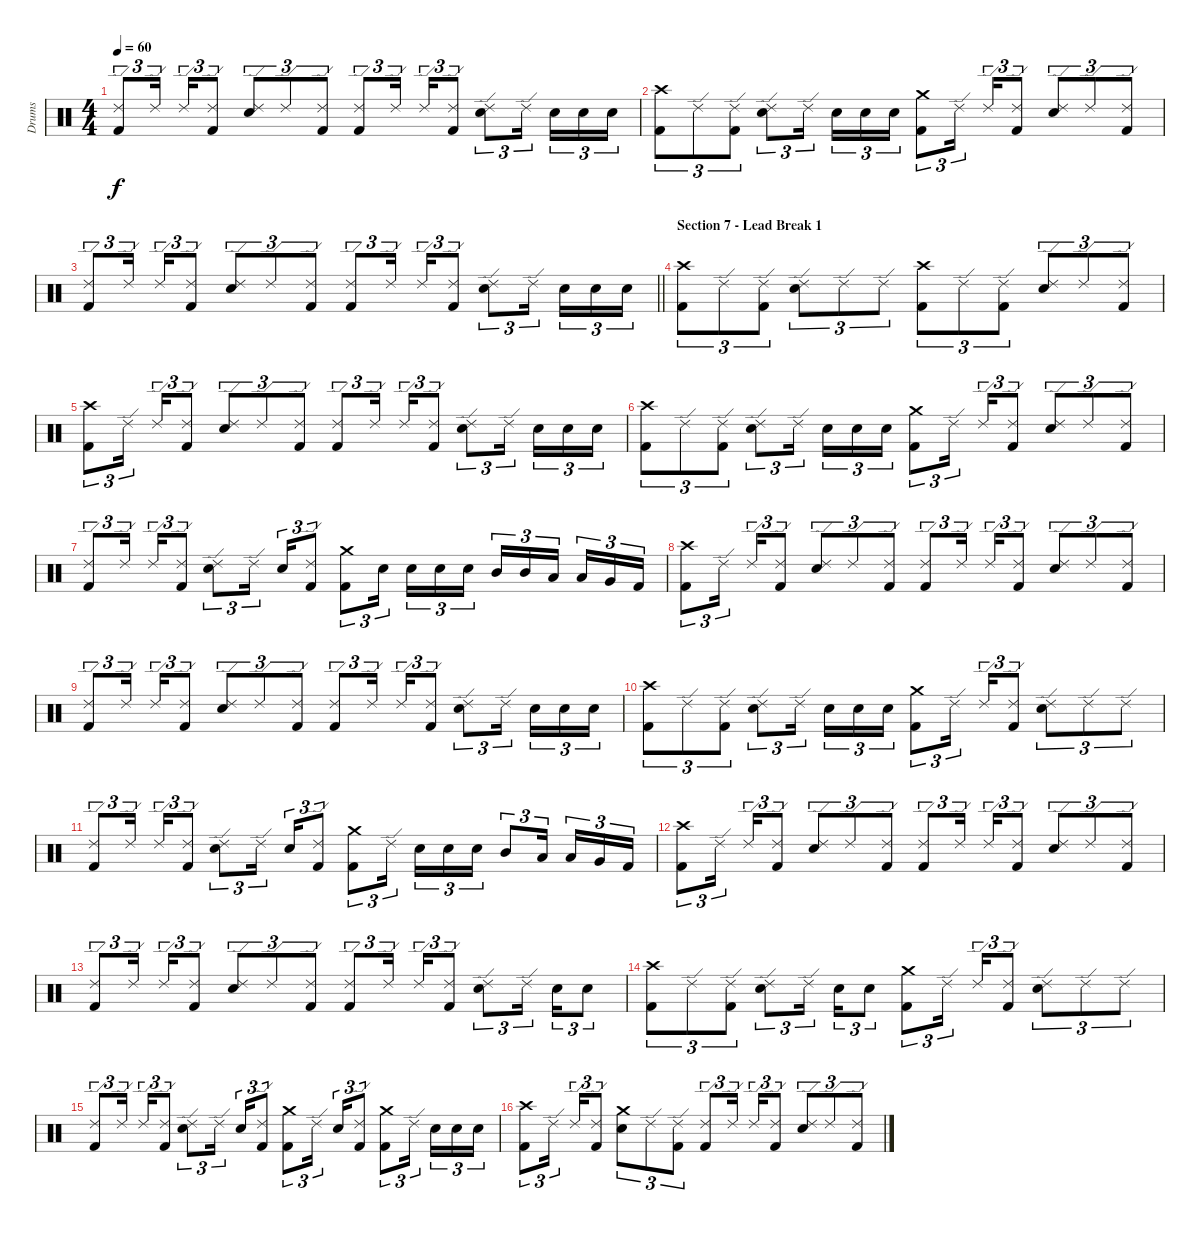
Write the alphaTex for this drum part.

\track ("Drums" "Drums") {instrument percussion}
\staff {score}
\articulation defaults
\ts (4 4)
\tempo 60
\clef neutral
\ks c
("Ride (edge) 2" "Kick (hit) 2").8{tu (3 2) dy f} "Ride (edge) 2".16{tu (3 2)} "Ride (edge) 2".16{tu (3 2)} ("Ride (edge) 2" "Kick (hit) 2").8{tu (3 2)} ("Ride (edge) 2" "Electric Snare (hit)").8{tu (3 2)} "Ride (edge) 2".8{tu (3 2)} ("Ride (edge) 2" "Kick (hit) 2").8{tu (3 2)} ("Ride (edge) 2" "Kick (hit) 2").8{tu (3 2)} "Ride (edge) 2".16{tu (3 2)} "Ride (edge) 2".16{tu (3 2)} ("Ride (edge) 2" "Kick (hit) 2").8{tu (3 2)} ("Ride (edge) 2" "Electric Snare (hit)").8{tu (3 2)} "Ride (edge) 2".16{tu (3 2)} "Electric Snare (hit)".16{tu (3 2)} "Electric Snare (hit)".16{tu (3 2)} "Electric Snare (hit)".16{tu (3 2)} |
("Crash high (hit)" "Kick (hit) 2").8{tu (3 2)} "Ride (edge) 2".8{tu (3 2)} ("Ride (edge) 2" "Kick (hit) 2").8{tu (3 2)} ("Ride (edge) 2" "Electric Snare (hit)").8{tu (3 2)} "Ride (edge) 2".16{tu (3 2)} "Electric Snare (hit)".16{tu (3 2)} "Electric Snare (hit)".16{tu (3 2)} "Electric Snare (hit)".16{tu (3 2)} ("Crash medium (hit)" "Kick (hit) 2").8{tu (3 2)} "Ride (edge) 2".16{tu (3 2)} "Ride (edge) 2".16{tu (3 2)} ("Ride (edge) 2" "Kick (hit) 2").8{tu (3 2)} ("Ride (edge) 2" "Electric Snare (hit)").8{tu (3 2)} "Ride (edge) 2".8{tu (3 2)} ("Ride (edge) 2" "Kick (hit) 2").8{tu (3 2)} |
\barLineRight lightlight
("Ride (edge) 2" "Kick (hit) 2").8{tu (3 2)} "Ride (edge) 2".16{tu (3 2)} "Ride (edge) 2".16{tu (3 2)} ("Ride (edge) 2" "Kick (hit) 2").8{tu (3 2)} ("Ride (edge) 2" "Electric Snare (hit)").8{tu (3 2)} "Ride (edge) 2".8{tu (3 2)} ("Ride (edge) 2" "Kick (hit) 2").8{tu (3 2)} ("Ride (edge) 2" "Kick (hit) 2").8{tu (3 2)} "Ride (edge) 2".16{tu (3 2)} "Ride (edge) 2".16{tu (3 2)} ("Ride (edge) 2" "Kick (hit) 2").8{tu (3 2)} ("Ride (edge) 2" "Electric Snare (hit)").8{tu (3 2)} "Ride (edge) 2".16{tu (3 2)} "Electric Snare (hit)".16{tu (3 2)} "Electric Snare (hit)".16{tu (3 2)} "Electric Snare (hit)".16{tu (3 2)} |
\section ("" "Section 7 - Lead Break 1")
("Crash high (hit)" "Kick (hit) 2").8{tu (3 2)} "Ride (edge) 2".8{tu (3 2)} ("Ride (edge) 2" "Kick (hit) 2").8{tu (3 2)} ("Ride (edge) 2" "Electric Snare (hit)").8{tu (3 2)} "Ride (edge) 2".8{tu (3 2)} "Ride (edge) 2".8{tu (3 2)} ("Crash high (hit)" "Kick (hit) 2").8{tu (3 2)} "Ride (edge) 2".8{tu (3 2)} ("Ride (edge) 2" "Kick (hit) 2").8{tu (3 2)} ("Ride (edge) 2" "Electric Snare (hit)").8{tu (3 2)} "Ride (edge) 2".8{tu (3 2)} ("Ride (edge) 2" "Kick (hit) 2").8{tu (3 2)} |
("Crash high (hit)" "Kick (hit) 2").8{tu (3 2)} "Ride (edge) 2".16{tu (3 2)} "Ride (edge) 2".16{tu (3 2)} ("Ride (edge) 2" "Kick (hit) 2").8{tu (3 2)} ("Ride (edge) 2" "Electric Snare (hit)").8{tu (3 2)} "Ride (edge) 2".8{tu (3 2)} ("Ride (edge) 2" "Kick (hit) 2").8{tu (3 2)} ("Ride (edge) 2" "Kick (hit) 2").8{tu (3 2)} "Ride (edge) 2".16{tu (3 2)} "Ride (edge) 2".16{tu (3 2)} ("Ride (edge) 2" "Kick (hit) 2").8{tu (3 2)} ("Ride (edge) 2" "Electric Snare (hit)").8{tu (3 2)} "Ride (edge) 2".16{tu (3 2)} "Electric Snare (hit)".16{tu (3 2)} "Electric Snare (hit)".16{tu (3 2)} "Electric Snare (hit)".16{tu (3 2)} |
("Crash high (hit)" "Kick (hit) 2").8{tu (3 2)} "Ride (edge) 2".8{tu (3 2)} ("Ride (edge) 2" "Kick (hit) 2").8{tu (3 2)} ("Ride (edge) 2" "Electric Snare (hit)").8{tu (3 2)} "Ride (edge) 2".16{tu (3 2)} "Electric Snare (hit)".16{tu (3 2)} "Electric Snare (hit)".16{tu (3 2)} "Electric Snare (hit)".16{tu (3 2)} ("Crash medium (hit)" "Kick (hit) 2").8{tu (3 2)} "Ride (edge) 2".16{tu (3 2)} "Ride (edge) 2".16{tu (3 2)} ("Ride (edge) 2" "Kick (hit) 2").8{tu (3 2)} ("Ride (edge) 2" "Electric Snare (hit)").8{tu (3 2)} "Ride (edge) 2".8{tu (3 2)} ("Ride (edge) 2" "Kick (hit) 2").8{tu (3 2)} |
("Ride (edge) 2" "Kick (hit) 2").8{tu (3 2)} "Ride (edge) 2".16{tu (3 2)} "Ride (edge) 2".16{tu (3 2)} ("Ride (edge) 2" "Kick (hit) 2").8{tu (3 2)} ("Ride (edge) 2" "Electric Snare (hit)").8{tu (3 2)} "Ride (edge) 2".16{tu (3 2)} "Electric Snare (hit)".16{tu (3 2)} ("Ride (edge) 2" "Kick (hit) 2").8{tu (3 2)} ("Crash medium (hit)" "Kick (hit) 2").8{tu (3 2)} "Electric Snare (hit)".16{tu (3 2)} "Electric Snare (hit)".16{tu (3 2)} "Electric Snare (hit)".16{tu (3 2)} "Electric Snare (hit)".16{tu (3 2)} "Mid Tom (hit)".16{tu (3 2)} "Mid Tom (hit)".16{tu (3 2)} "Low Tom (hit)".16{tu (3 2)} "Low Tom (hit)".16{tu (3 2)} "Very Low Tom (hit)".16{tu (3 2)} "Kick (hit) 2".16{tu (3 2)} |
("Crash high (hit)" "Kick (hit) 2").8{tu (3 2)} "Ride (edge) 2".16{tu (3 2)} "Ride (edge) 2".16{tu (3 2)} ("Ride (edge) 2" "Kick (hit) 2").8{tu (3 2)} ("Ride (edge) 2" "Electric Snare (hit)").8{tu (3 2)} "Ride (edge) 2".8{tu (3 2)} ("Ride (edge) 2" "Kick (hit) 2").8{tu (3 2)} ("Ride (edge) 2" "Kick (hit) 2").8{tu (3 2)} "Ride (edge) 2".16{tu (3 2)} "Ride (edge) 2".16{tu (3 2)} ("Ride (edge) 2" "Kick (hit) 2").8{tu (3 2)} ("Ride (edge) 2" "Electric Snare (hit)").8{tu (3 2)} "Ride (edge) 2".8{tu (3 2)} ("Ride (edge) 2" "Kick (hit) 2").8{tu (3 2)} |
("Ride (edge) 2" "Kick (hit) 2").8{tu (3 2)} "Ride (edge) 2".16{tu (3 2)} "Ride (edge) 2".16{tu (3 2)} ("Ride (edge) 2" "Kick (hit) 2").8{tu (3 2)} ("Ride (edge) 2" "Electric Snare (hit)").8{tu (3 2)} "Ride (edge) 2".8{tu (3 2)} ("Ride (edge) 2" "Kick (hit) 2").8{tu (3 2)} ("Ride (edge) 2" "Kick (hit) 2").8{tu (3 2)} "Ride (edge) 2".16{tu (3 2)} "Ride (edge) 2".16{tu (3 2)} ("Ride (edge) 2" "Kick (hit) 2").8{tu (3 2)} ("Ride (edge) 2" "Electric Snare (hit)").8{tu (3 2)} "Ride (edge) 2".16{tu (3 2)} "Electric Snare (hit)".16{tu (3 2)} "Electric Snare (hit)".16{tu (3 2)} "Electric Snare (hit)".16{tu (3 2)} |
("Crash high (hit)" "Kick (hit) 2").8{tu (3 2)} "Ride (edge) 2".8{tu (3 2)} ("Ride (edge) 2" "Kick (hit) 2").8{tu (3 2)} ("Ride (edge) 2" "Electric Snare (hit)").8{tu (3 2)} "Ride (edge) 2".16{tu (3 2)} "Electric Snare (hit)".16{tu (3 2)} "Electric Snare (hit)".16{tu (3 2)} "Electric Snare (hit)".16{tu (3 2)} ("Crash medium (hit)" "Kick (hit) 2").8{tu (3 2)} "Ride (edge) 2".16{tu (3 2)} "Ride (edge) 2".16{tu (3 2)} ("Ride (edge) 2" "Kick (hit) 2").8{tu (3 2)} ("Ride (edge) 2" "Electric Snare (hit)").8{tu (3 2)} "Ride (edge) 2".8{tu (3 2)} "Ride (edge) 2".8{tu (3 2)} |
("Ride (edge) 2" "Kick (hit) 2").8{tu (3 2)} "Ride (edge) 2".16{tu (3 2)} "Ride (edge) 2".16{tu (3 2)} ("Ride (edge) 2" "Kick (hit) 2").8{tu (3 2)} ("Ride (edge) 2" "Electric Snare (hit)").8{tu (3 2)} "Ride (edge) 2".16{tu (3 2)} "Electric Snare (hit)".16{tu (3 2)} ("Ride (edge) 2" "Kick (hit) 2").8{tu (3 2)} ("Crash medium (hit)" "Kick (hit) 2").8{tu (3 2)} "Ride (edge) 2".16{tu (3 2)} "Electric Snare (hit)".16{tu (3 2)} "Electric Snare (hit)".16{tu (3 2)} "Electric Snare (hit)".16{tu (3 2)} "Mid Tom (hit)".8{tu (3 2)} "Low Tom (hit)".16{tu (3 2)} "Low Tom (hit)".16{tu (3 2)} "Very Low Tom (hit)".16{tu (3 2)} "Kick (hit) 2".16{tu (3 2)} |
("Crash high (hit)" "Kick (hit) 2").8{tu (3 2)} "Ride (edge) 2".16{tu (3 2)} "Ride (edge) 2".16{tu (3 2)} ("Ride (edge) 2" "Kick (hit) 2").8{tu (3 2)} ("Ride (edge) 2" "Electric Snare (hit)").8{tu (3 2)} "Ride (edge) 2".8{tu (3 2)} ("Ride (edge) 2" "Kick (hit) 2").8{tu (3 2)} ("Ride (edge) 2" "Kick (hit) 2").8{tu (3 2)} "Ride (edge) 2".16{tu (3 2)} "Ride (edge) 2".16{tu (3 2)} ("Ride (edge) 2" "Kick (hit) 2").8{tu (3 2)} ("Ride (edge) 2" "Electric Snare (hit)").8{tu (3 2)} "Ride (edge) 2".8{tu (3 2)} ("Ride (edge) 2" "Kick (hit) 2").8{tu (3 2)} |
("Ride (edge) 2" "Kick (hit) 2").8{tu (3 2)} "Ride (edge) 2".16{tu (3 2)} "Ride (edge) 2".16{tu (3 2)} ("Ride (edge) 2" "Kick (hit) 2").8{tu (3 2)} ("Ride (edge) 2" "Electric Snare (hit)").8{tu (3 2)} "Ride (edge) 2".8{tu (3 2)} ("Ride (edge) 2" "Kick (hit) 2").8{tu (3 2)} ("Ride (edge) 2" "Kick (hit) 2").8{tu (3 2)} "Ride (edge) 2".16{tu (3 2)} "Ride (edge) 2".16{tu (3 2)} ("Ride (edge) 2" "Kick (hit) 2").8{tu (3 2)} ("Ride (edge) 2" "Electric Snare (hit)").8{tu (3 2)} "Ride (edge) 2".16{tu (3 2)} "Electric Snare (hit)".16{tu (3 2)} "Electric Snare (hit)".8{tu (3 2)} |
("Crash high (hit)" "Kick (hit) 2").8{tu (3 2)} "Ride (edge) 2".8{tu (3 2)} ("Ride (edge) 2" "Kick (hit) 2").8{tu (3 2)} ("Ride (edge) 2" "Electric Snare (hit)").8{tu (3 2)} "Ride (edge) 2".16{tu (3 2)} "Electric Snare (hit)".16{tu (3 2)} "Electric Snare (hit)".8{tu (3 2)} ("Crash medium (hit)" "Kick (hit) 2").8{tu (3 2)} "Ride (edge) 2".16{tu (3 2)} "Ride (edge) 2".16{tu (3 2)} ("Ride (edge) 2" "Kick (hit) 2").8{tu (3 2)} ("Ride (edge) 2" "Electric Snare (hit)").8{tu (3 2)} "Ride (edge) 2".8{tu (3 2)} "Ride (edge) 2".8{tu (3 2)} |
("Ride (edge) 2" "Kick (hit) 2").8{tu (3 2)} "Ride (edge) 2".16{tu (3 2)} "Ride (edge) 2".16{tu (3 2)} ("Ride (edge) 2" "Kick (hit) 2").8{tu (3 2)} ("Ride (edge) 2" "Electric Snare (hit)").8{tu (3 2)} "Ride (edge) 2".16{tu (3 2)} "Electric Snare (hit)".16{tu (3 2)} ("Ride (edge) 2" "Kick (hit) 2").8{tu (3 2)} ("Crash medium (hit)" "Kick (hit) 2").8{tu (3 2)} "Ride (edge) 2".16{tu (3 2)} "Electric Snare (hit)".16{tu (3 2)} ("Ride (edge) 2" "Kick (hit) 2").8{tu (3 2)} ("Crash medium (hit)" "Kick (hit) 2").8{tu (3 2)} "Ride (edge) 2".16{tu (3 2)} "Electric Snare (hit)".16{tu (3 2)} "Electric Snare (hit)".16{tu (3 2)} "Electric Snare (hit)".16{tu (3 2)} |
("Crash high (hit)" "Kick (hit) 2").8{tu (3 2)} "Ride (edge) 2".16{tu (3 2)} "Ride (edge) 2".16{tu (3 2)} ("Ride (edge) 2" "Kick (hit) 2").8{tu (3 2)} ("Crash medium (hit)" "Electric Snare (hit)").8{tu (3 2)} "Ride (edge) 2".8{tu (3 2)} ("Ride (edge) 2" "Kick (hit) 2").8{tu (3 2)} ("Ride (edge) 2" "Kick (hit) 2").8{tu (3 2)} "Ride (edge) 2".16{tu (3 2)} "Ride (edge) 2".16{tu (3 2)} ("Ride (edge) 2" "Kick (hit) 2").8{tu (3 2)} ("Ride (edge) 2" "Electric Snare (hit)").8{tu (3 2)} "Ride (edge) 2".8{tu (3 2)} ("Ride (edge) 2" "Kick (hit) 2").8{tu (3 2)}
